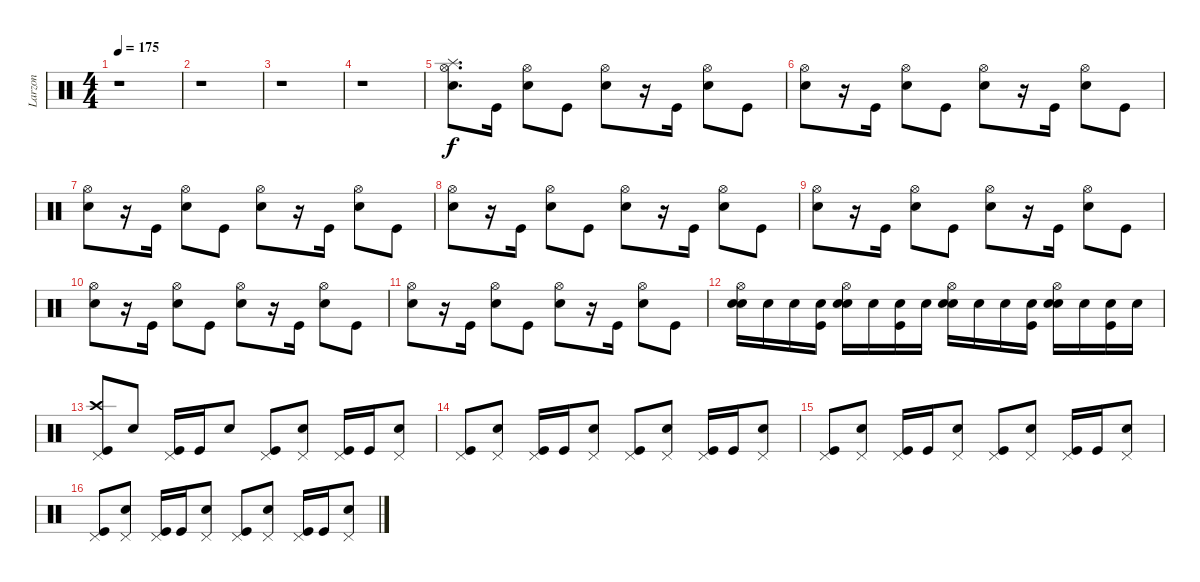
\track ("Larzon" "Larzon") {instrument percussion}
\staff {score}
\articulation defaults
\ts (4 4)
\tempo 175
\clef neutral
\ks c
r.1{dy f} |
r.1 |
r.1 |
r.1 |
("Splash (hit)" "Hi-Hat (open)" "Snare (hit) 2").8{d} "Kick (hit)".16 ("Snare (hit) 2" "Hi-Hat (open)").8 "Kick (hit)".8 ("Snare (hit) 2" "Hi-Hat (open)").8 r.16 "Kick (hit)".16 ("Snare (hit) 2" "Hi-Hat (open)").8 "Kick (hit)".8 |
("Snare (hit) 2" "Hi-Hat (open)").8 r.16 "Kick (hit)".16 ("Snare (hit) 2" "Hi-Hat (open)").8 "Kick (hit)".8 ("Snare (hit) 2" "Hi-Hat (open)").8 r.16 "Kick (hit)".16 ("Snare (hit) 2" "Hi-Hat (open)").8 "Kick (hit)".8 |
("Snare (hit) 2" "Hi-Hat (open)").8 r.16 "Kick (hit)".16 ("Snare (hit) 2" "Hi-Hat (open)").8 "Kick (hit)".8 ("Snare (hit) 2" "Hi-Hat (open)").8 r.16 "Kick (hit)".16 ("Snare (hit) 2" "Hi-Hat (open)").8 "Kick (hit)".8 |
("Snare (hit) 2" "Hi-Hat (open)").8 r.16 "Kick (hit)".16 ("Snare (hit) 2" "Hi-Hat (open)").8 "Kick (hit)".8 ("Snare (hit) 2" "Hi-Hat (open)").8 r.16 "Kick (hit)".16 ("Snare (hit) 2" "Hi-Hat (open)").8 "Kick (hit)".8 |
("Snare (hit) 2" "Hi-Hat (open)").8 r.16 "Kick (hit)".16 ("Snare (hit) 2" "Hi-Hat (open)").8 "Kick (hit)".8 ("Snare (hit) 2" "Hi-Hat (open)").8 r.16 "Kick (hit)".16 ("Snare (hit) 2" "Hi-Hat (open)").8 "Kick (hit)".8 |
("Snare (hit) 2" "Hi-Hat (open)").8 r.16 "Kick (hit)".16 ("Snare (hit) 2" "Hi-Hat (open)").8 "Kick (hit)".8 ("Snare (hit) 2" "Hi-Hat (open)").8 r.16 "Kick (hit)".16 ("Snare (hit) 2" "Hi-Hat (open)").8 "Kick (hit)".8 |
("Snare (hit) 2" "Hi-Hat (open)").8 r.16 "Kick (hit)".16 ("Snare (hit) 2" "Hi-Hat (open)").8 "Kick (hit)".8 ("Snare (hit) 2" "Hi-Hat (open)").8 r.16 "Kick (hit)".16 ("Snare (hit) 2" "Hi-Hat (open)").8 "Kick (hit)".8 |
("Snare (hit) 2" "Hi-Hat (open)" "Electric Snare (hit)").16 "Electric Snare (hit)".16 "Electric Snare (hit)".16 ("Kick (hit)" "Electric Snare (hit)").16 ("Snare (hit) 2" "Hi-Hat (open)" "Electric Snare (hit)").16 "Electric Snare (hit)".16 ("Kick (hit)" "Electric Snare (hit)").16 "Electric Snare (hit)".16 ("Snare (hit) 2" "Hi-Hat (open)" "Snare (hit) 2").16 "Snare (hit) 2".16 "Snare (hit) 2".16 ("Kick (hit)" "Snare (hit) 2").16 ("Snare (hit) 2" "Hi-Hat (open)" "Snare (hit) 2").16 "Snare (hit) 2".16 ("Kick (hit)" "Snare (hit) 2").16 "Snare (hit) 2".16 |
("Kick (hit)" "Crash high (hit)" "Pedal Hi-Hat (hit)").8 "Snare (hit) 2".8 ("Kick (hit)" "Pedal Hi-Hat (hit)").16 "Kick (hit)".16 "Snare (hit) 2".8 ("Kick (hit)" "Pedal Hi-Hat (hit)").8 ("Snare (hit) 2" "Pedal Hi-Hat (hit)").8 ("Kick (hit)" "Pedal Hi-Hat (hit)").16 "Kick (hit)".16 ("Snare (hit) 2" "Pedal Hi-Hat (hit)").8 |
("Kick (hit)" "Pedal Hi-Hat (hit)").8 ("Snare (hit) 2" "Pedal Hi-Hat (hit)").8 ("Kick (hit)" "Pedal Hi-Hat (hit)").16 "Kick (hit)".16 ("Snare (hit) 2" "Pedal Hi-Hat (hit)").8 ("Kick (hit)" "Pedal Hi-Hat (hit)").8 ("Snare (hit) 2" "Pedal Hi-Hat (hit)").8 ("Kick (hit)" "Pedal Hi-Hat (hit)").16 "Kick (hit)".16 ("Snare (hit) 2" "Pedal Hi-Hat (hit)").8 |
("Kick (hit)" "Pedal Hi-Hat (hit)").8 ("Snare (hit) 2" "Pedal Hi-Hat (hit)").8 ("Kick (hit)" "Pedal Hi-Hat (hit)").16 "Kick (hit)".16 ("Snare (hit) 2" "Pedal Hi-Hat (hit)").8 ("Kick (hit)" "Pedal Hi-Hat (hit)").8 ("Snare (hit) 2" "Pedal Hi-Hat (hit)").8 ("Kick (hit)" "Pedal Hi-Hat (hit)").16 "Kick (hit)".16 ("Snare (hit) 2" "Pedal Hi-Hat (hit)").8 |
("Kick (hit)" "Pedal Hi-Hat (hit)").8 ("Snare (hit) 2" "Pedal Hi-Hat (hit)").8 ("Kick (hit)" "Pedal Hi-Hat (hit)").16 "Kick (hit)".16 ("Snare (hit) 2" "Pedal Hi-Hat (hit)").8 ("Kick (hit)" "Pedal Hi-Hat (hit)").8 ("Snare (hit) 2" "Pedal Hi-Hat (hit)").8 ("Kick (hit)" "Pedal Hi-Hat (hit)").16 "Kick (hit)".16 ("Snare (hit) 2" "Pedal Hi-Hat (hit)").8
